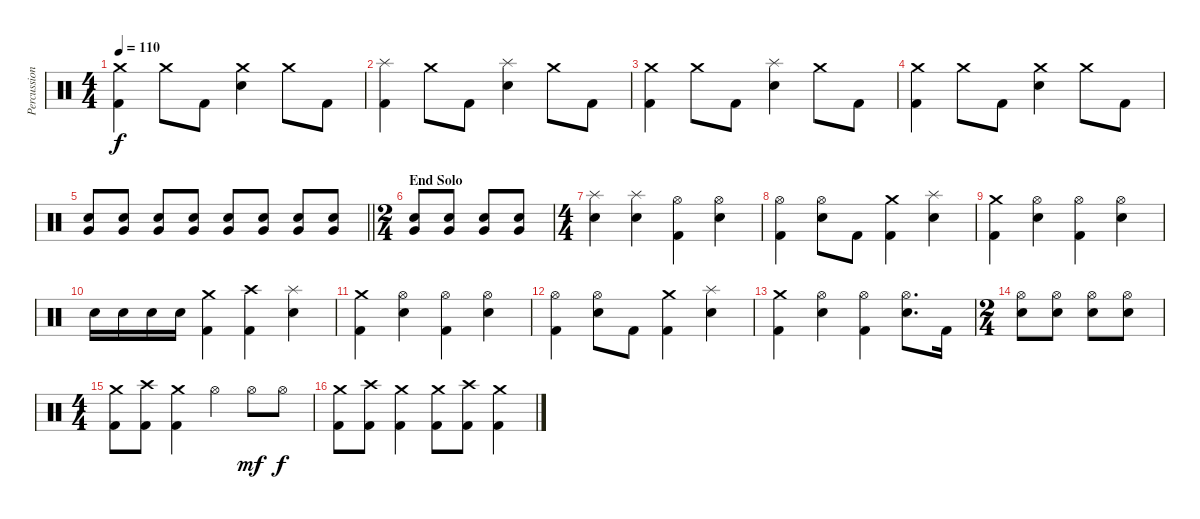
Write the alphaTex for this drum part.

\track ("Percussion" "Percussion") {instrument percussion}
\staff {score}
\articulation defaults
\ts (4 4)
\tempo 110
\clef neutral
\ks c
("Crash medium (hit)" "Kick (hit) 2").4{dy f} "Crash medium (hit)".8 "Kick (hit) 2".8 ("Crash medium (hit)" "Electric Snare (hit)").4 "Crash medium (hit)".8 "Kick (hit) 2".8 |
("Splash (hit)" "Kick (hit) 2").4 "Crash medium (hit)".8 "Kick (hit) 2".8 ("Splash (hit)" "Electric Snare (hit)").4 "Crash medium (hit)".8 "Kick (hit) 2".8 |
("Crash medium (hit)" "Kick (hit) 2").4 "Crash medium (hit)".8 "Kick (hit) 2".8 ("Splash (hit)" "Electric Snare (hit)").4 "Crash medium (hit)".8 "Kick (hit) 2".8 |
("Crash medium (hit)" "Kick (hit) 2").4 "Crash medium (hit)".8 "Kick (hit) 2".8 ("Crash medium (hit)" "Electric Snare (hit)").4 "Crash medium (hit)".8 "Kick (hit) 2".8 |
\barLineRight lightlight
("Electric Snare (hit)" "Very Low Tom (hit)").8 ("Electric Snare (hit)" "Very Low Tom (hit)").8 ("Electric Snare (hit)" "Very Low Tom (hit)").8 ("Electric Snare (hit)" "Very Low Tom (hit)").8 ("Electric Snare (hit)" "Very Low Tom (hit)").8 ("Electric Snare (hit)" "Very Low Tom (hit)").8 ("Electric Snare (hit)" "Very Low Tom (hit)").8 ("Electric Snare (hit)" "Very Low Tom (hit)").8 |
\ts (2 4)
\section ("" "End Solo")
("Electric Snare (hit)" "Very Low Tom (hit)").8 ("Electric Snare (hit)" "Very Low Tom (hit)").8 ("Electric Snare (hit)" "Very Low Tom (hit)").8 ("Electric Snare (hit)" "Very Low Tom (hit)").8 |
\ts (4 4)
("Splash (hit)" "Electric Snare (hit)").4 ("Splash (hit)" "Electric Snare (hit)").4 ("Hi-Hat (open)" "Kick (hit) 2").4 ("Hi-Hat (open)" "Electric Snare (hit)").4 |
("Hi-Hat (open)" "Kick (hit) 2").4 ("Hi-Hat (open)" "Electric Snare (hit)").8 "Kick (hit) 2".8 ("Crash medium (hit)" "Kick (hit) 2").4 ("Splash (hit)" "Electric Snare (hit)").4 |
("Crash medium (hit)" "Kick (hit) 2").4 ("Hi-Hat (open)" "Electric Snare (hit)").4 ("Hi-Hat (open)" "Kick (hit) 2").4 ("Hi-Hat (open)" "Electric Snare (hit)").4 |
"Electric Snare (hit)".16 "Electric Snare (hit)".16 "Electric Snare (hit)".16 "Electric Snare (hit)".16 ("Crash medium (hit)" "Kick (hit) 2").4 ("Crash high (hit)" "Kick (hit) 2").4 ("Splash (hit)" "Electric Snare (hit)").4 |
("Crash medium (hit)" "Kick (hit) 2").4 ("Hi-Hat (open)" "Electric Snare (hit)").4 ("Hi-Hat (open)" "Kick (hit) 2").4 ("Hi-Hat (open)" "Electric Snare (hit)").4 |
("Hi-Hat (open)" "Kick (hit) 2").4 ("Hi-Hat (open)" "Electric Snare (hit)").8 "Kick (hit) 2".8 ("Crash medium (hit)" "Kick (hit) 2").4 ("Splash (hit)" "Electric Snare (hit)").4 |
("Crash medium (hit)" "Kick (hit) 2").4 ("Hi-Hat (open)" "Electric Snare (hit)").4 ("Hi-Hat (open)" "Kick (hit) 2").4 ("Hi-Hat (open)" "Electric Snare (hit)").8{d} "Kick (hit) 2".16 |
\ts (2 4)
("Hi-Hat (open)" "Electric Snare (hit)").8 ("Hi-Hat (open)" "Electric Snare (hit)").8 ("Hi-Hat (open)" "Electric Snare (hit)").8 ("Hi-Hat (open)" "Electric Snare (hit)").8 |
\ts (4 4)
("Crash medium (hit)" "Kick (hit) 2").8 ("Crash high (hit)" "Kick (hit) 2").8 ("Crash medium (hit)" "Kick (hit) 2").4 "Hi-Hat (open)".4 "Hi-Hat (open)".8{dy mf} "Hi-Hat (open)".8{dy f} |
("Crash medium (hit)" "Kick (hit) 2").8 ("Crash high (hit)" "Kick (hit) 2").8 ("Crash medium (hit)" "Kick (hit) 2").4 ("Crash medium (hit)" "Kick (hit) 2").8 ("Crash high (hit)" "Kick (hit) 2").8 ("Crash medium (hit)" "Kick (hit) 2").4
